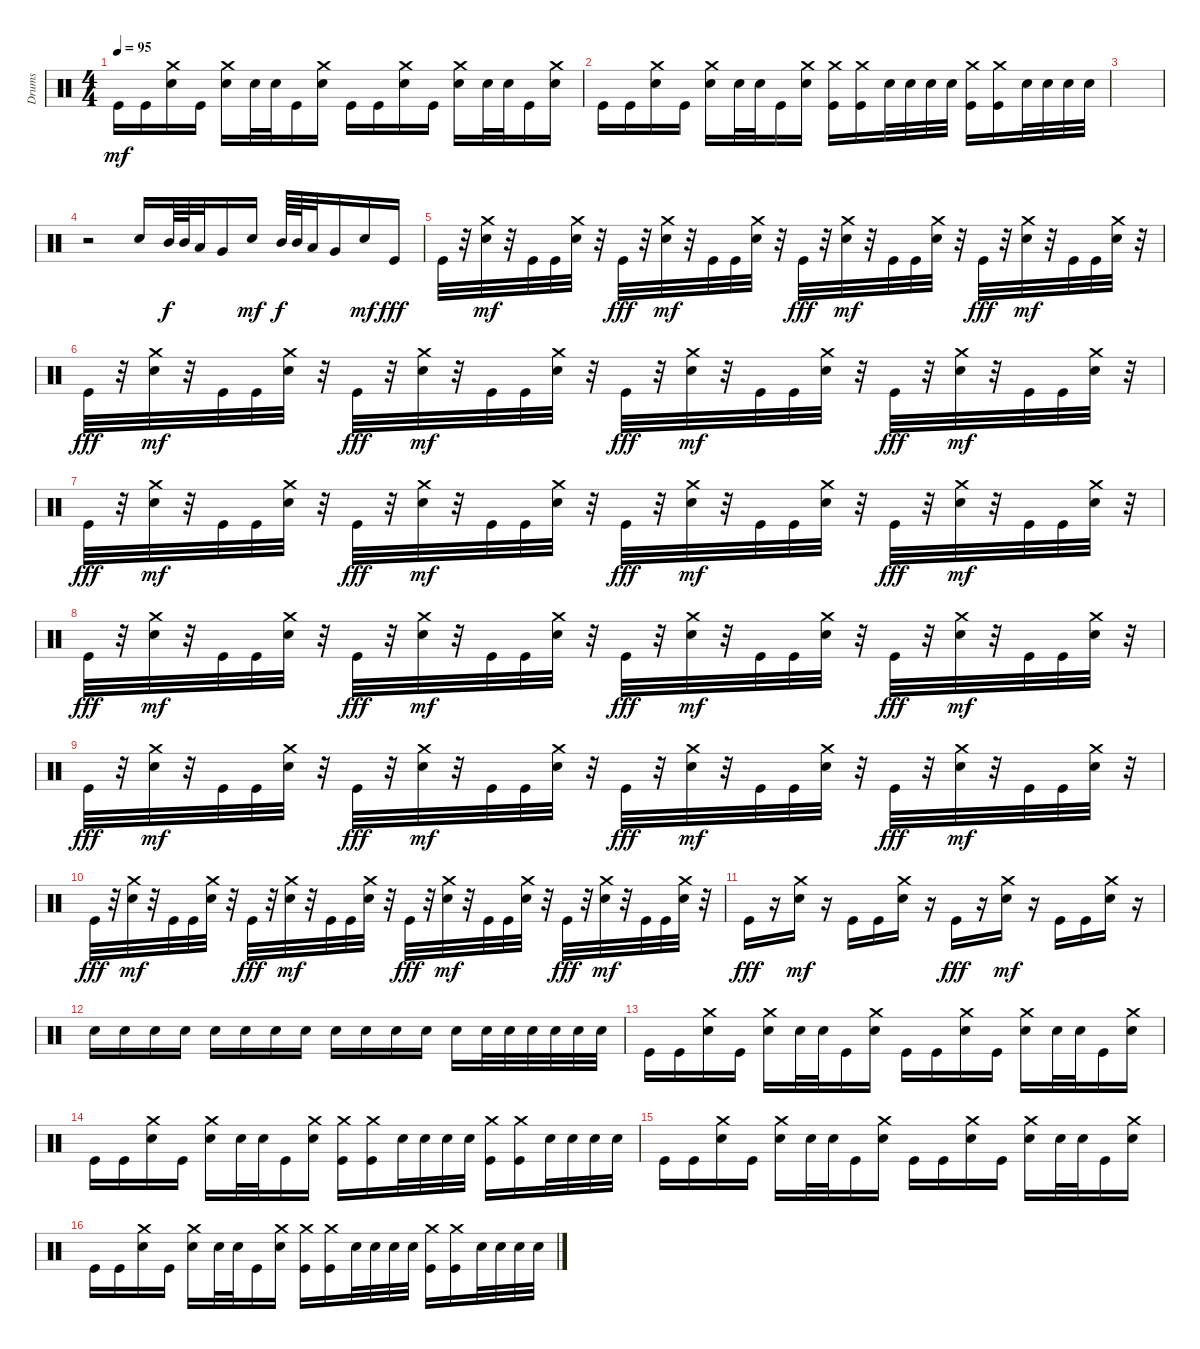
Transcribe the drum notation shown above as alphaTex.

\track ("Drums" "Drums") {instrument percussion}
\staff {score}
\articulation defaults
\ts (4 4)
\tempo 95
\clef neutral
\ks c "Kick (hit)".16{dy mf} "Kick (hit)".16
("Crash medium (hit)" "Snare (hit) 2").16 "Kick (hit)".16 ("Crash medium (hit)" "Snare (hit) 2").16 "Snare (hit) 2".32 "Snare (hit) 2".32 "Kick (hit)".16 ("Crash medium (hit)" "Snare (hit) 2").16 "Kick (hit)".16 "Kick (hit)".16 ("Crash medium (hit)" "Snare (hit) 2").16 "Kick (hit)".16 ("Crash medium (hit)" "Snare (hit) 2").16 "Snare (hit) 2".32 "Snare (hit) 2".32 "Kick (hit)".16 ("Crash medium (hit)" "Snare (hit) 2").16 |
"Kick (hit)".16 "Kick (hit)".16 ("Crash medium (hit)" "Snare (hit) 2").16 "Kick (hit)".16 ("Crash medium (hit)" "Snare (hit) 2").16 "Snare (hit) 2".32 "Snare (hit) 2".32 "Kick (hit)".16 ("Crash medium (hit)" "Snare (hit) 2").16 ("Crash medium (hit)" "Kick (hit)").16 ("Crash medium (hit)" "Kick (hit)").16 "Snare (hit) 2".32 "Snare (hit) 2".32 "Snare (hit) 2".32 "Snare (hit) 2".32 ("Crash medium (hit)" "Kick (hit)").16 ("Crash medium (hit)" "Kick (hit)").16 "Snare (hit) 2".32 "Snare (hit) 2".32 "Snare (hit) 2".32 "Snare (hit) 2".32 |
|
r.2 "Snare (hit) 2".16 "Mid Tom (hit)".64{dy f} "Mid Tom (hit)".64 "Low Tom (hit)".32 "Very Low Tom (hit)".16 "Snare (hit) 2".16{dy mf} "Mid Tom (hit)".64{dy f} "Mid Tom (hit)".64 "Low Tom (hit)".32 "Very Low Tom (hit)".16 "Snare (hit) 2".16{dy mf} "Kick (hit)".16{dy fff} |
"Kick (hit)".32 r.32 ("Crash medium (hit)" "Snare (hit) 2").32{dy mf} r.32 "Kick (hit)".32 "Kick (hit)".32 ("Crash medium (hit)" "Snare (hit) 2").32 r.32 "Kick (hit)".32{dy fff} r.32 ("Crash medium (hit)" "Snare (hit) 2").32{dy mf} r.32 "Kick (hit)".32 "Kick (hit)".32 ("Crash medium (hit)" "Snare (hit) 2").32 r.32 "Kick (hit)".32{dy fff} r.32 ("Crash medium (hit)" "Snare (hit) 2").32{dy mf} r.32 "Kick (hit)".32 "Kick (hit)".32 ("Crash medium (hit)" "Snare (hit) 2").32 r.32 "Kick (hit)".32{dy fff} r.32 ("Crash medium (hit)" "Snare (hit) 2").32{dy mf} r.32 "Kick (hit)".32 "Kick (hit)".32 ("Crash medium (hit)" "Snare (hit) 2").32 r.32 |
"Kick (hit)".32{dy fff} r.32 ("Crash medium (hit)" "Snare (hit) 2").32{dy mf} r.32 "Kick (hit)".32 "Kick (hit)".32 ("Crash medium (hit)" "Snare (hit) 2").32 r.32 "Kick (hit)".32{dy fff} r.32 ("Crash medium (hit)" "Snare (hit) 2").32{dy mf} r.32 "Kick (hit)".32 "Kick (hit)".32 ("Crash medium (hit)" "Snare (hit) 2").32 r.32 "Kick (hit)".32{dy fff} r.32 ("Crash medium (hit)" "Snare (hit) 2").32{dy mf} r.32 "Kick (hit)".32 "Kick (hit)".32 ("Crash medium (hit)" "Snare (hit) 2").32 r.32 "Kick (hit)".32{dy fff} r.32 ("Crash medium (hit)" "Snare (hit) 2").32{dy mf} r.32 "Kick (hit)".32 "Kick (hit)".32 ("Crash medium (hit)" "Snare (hit) 2").32 r.32 |
"Kick (hit)".32{dy fff} r.32 ("Crash medium (hit)" "Snare (hit) 2").32{dy mf} r.32 "Kick (hit)".32 "Kick (hit)".32 ("Crash medium (hit)" "Snare (hit) 2").32 r.32 "Kick (hit)".32{dy fff} r.32 ("Crash medium (hit)" "Snare (hit) 2").32{dy mf} r.32 "Kick (hit)".32 "Kick (hit)".32 ("Crash medium (hit)" "Snare (hit) 2").32 r.32 "Kick (hit)".32{dy fff} r.32 ("Crash medium (hit)" "Snare (hit) 2").32{dy mf} r.32 "Kick (hit)".32 "Kick (hit)".32 ("Crash medium (hit)" "Snare (hit) 2").32 r.32 "Kick (hit)".32{dy fff} r.32 ("Crash medium (hit)" "Snare (hit) 2").32{dy mf} r.32 "Kick (hit)".32 "Kick (hit)".32 ("Crash medium (hit)" "Snare (hit) 2").32 r.32 |
"Kick (hit)".32{dy fff} r.32 ("Crash medium (hit)" "Snare (hit) 2").32{dy mf} r.32 "Kick (hit)".32 "Kick (hit)".32 ("Crash medium (hit)" "Snare (hit) 2").32 r.32 "Kick (hit)".32{dy fff} r.32 ("Crash medium (hit)" "Snare (hit) 2").32{dy mf} r.32 "Kick (hit)".32 "Kick (hit)".32 ("Crash medium (hit)" "Snare (hit) 2").32 r.32 "Kick (hit)".32{dy fff} r.32 ("Crash medium (hit)" "Snare (hit) 2").32{dy mf} r.32 "Kick (hit)".32 "Kick (hit)".32 ("Crash medium (hit)" "Snare (hit) 2").32 r.32 "Kick (hit)".32{dy fff} r.32 ("Crash medium (hit)" "Snare (hit) 2").32{dy mf} r.32 "Kick (hit)".32 "Kick (hit)".32 ("Crash medium (hit)" "Snare (hit) 2").32 r.32 |
"Kick (hit)".32{dy fff} r.32 ("Crash medium (hit)" "Snare (hit) 2").32{dy mf} r.32 "Kick (hit)".32 "Kick (hit)".32 ("Crash medium (hit)" "Snare (hit) 2").32 r.32 "Kick (hit)".32{dy fff} r.32 ("Crash medium (hit)" "Snare (hit) 2").32{dy mf} r.32 "Kick (hit)".32 "Kick (hit)".32 ("Crash medium (hit)" "Snare (hit) 2").32 r.32 "Kick (hit)".32{dy fff} r.32 ("Crash medium (hit)" "Snare (hit) 2").32{dy mf} r.32 "Kick (hit)".32 "Kick (hit)".32 ("Crash medium (hit)" "Snare (hit) 2").32 r.32 "Kick (hit)".32{dy fff} r.32 ("Crash medium (hit)" "Snare (hit) 2").32{dy mf} r.32 "Kick (hit)".32 "Kick (hit)".32 ("Crash medium (hit)" "Snare (hit) 2").32 r.32 |
"Kick (hit)".32{dy fff} r.32 ("Crash medium (hit)" "Snare (hit) 2").32{dy mf} r.32 "Kick (hit)".32 "Kick (hit)".32 ("Crash medium (hit)" "Snare (hit) 2").32 r.32 "Kick (hit)".32{dy fff} r.32 ("Crash medium (hit)" "Snare (hit) 2").32{dy mf} r.32 "Kick (hit)".32 "Kick (hit)".32 ("Crash medium (hit)" "Snare (hit) 2").32 r.32 "Kick (hit)".32{dy fff} r.32 ("Crash medium (hit)" "Snare (hit) 2").32{dy mf} r.32 "Kick (hit)".32 "Kick (hit)".32 ("Crash medium (hit)" "Snare (hit) 2").32 r.32 "Kick (hit)".32{dy fff} r.32 ("Crash medium (hit)" "Snare (hit) 2").32{dy mf} r.32 "Kick (hit)".32 "Kick (hit)".32 ("Crash medium (hit)" "Snare (hit) 2").32 r.32 |
"Kick (hit)".16{dy fff} r.16 ("Crash medium (hit)" "Snare (hit) 2").16{dy mf} r.16 "Kick (hit)".16 "Kick (hit)".16 ("Crash medium (hit)" "Snare (hit) 2").16 r.16 "Kick (hit)".16{dy fff} r.16 ("Crash medium (hit)" "Snare (hit) 2").16{dy mf} r.16 "Kick (hit)".16 "Kick (hit)".16 ("Crash medium (hit)" "Snare (hit) 2").16 r.16 |
"Snare (hit) 2".16 "Snare (hit) 2".16 "Snare (hit) 2".16 "Snare (hit) 2".16 "Snare (hit) 2".16 "Snare (hit) 2".16 "Snare (hit) 2".16 "Snare (hit) 2".16 "Snare (hit) 2".16 "Snare (hit) 2".16 "Snare (hit) 2".16 "Snare (hit) 2".16 "Snare (hit) 2".16 "Snare (hit) 2".32 "Snare (hit) 2".32 "Snare (hit) 2".32 "Snare (hit) 2".32 "Snare (hit) 2".32 "Snare (hit) 2".32 |
"Kick (hit)".16 "Kick (hit)".16 ("Crash medium (hit)" "Snare (hit) 2").16 "Kick (hit)".16 ("Crash medium (hit)" "Snare (hit) 2").16 "Snare (hit) 2".32 "Snare (hit) 2".32 "Kick (hit)".16 ("Crash medium (hit)" "Snare (hit) 2").16 "Kick (hit)".16 "Kick (hit)".16 ("Crash medium (hit)" "Snare (hit) 2").16 "Kick (hit)".16 ("Crash medium (hit)" "Snare (hit) 2").16 "Snare (hit) 2".32 "Snare (hit) 2".32 "Kick (hit)".16 ("Crash medium (hit)" "Snare (hit) 2").16 |
"Kick (hit)".16 "Kick (hit)".16 ("Crash medium (hit)" "Snare (hit) 2").16 "Kick (hit)".16 ("Crash medium (hit)" "Snare (hit) 2").16 "Snare (hit) 2".32 "Snare (hit) 2".32 "Kick (hit)".16 ("Crash medium (hit)" "Snare (hit) 2").16 ("Crash medium (hit)" "Kick (hit)").16 ("Crash medium (hit)" "Kick (hit)").16 "Snare (hit) 2".32 "Snare (hit) 2".32 "Snare (hit) 2".32 "Snare (hit) 2".32 ("Crash medium (hit)" "Kick (hit)").16 ("Crash medium (hit)" "Kick (hit)").16 "Snare (hit) 2".32 "Snare (hit) 2".32 "Snare (hit) 2".32 "Snare (hit) 2".32 |
"Kick (hit)".16 "Kick (hit)".16 ("Crash medium (hit)" "Snare (hit) 2").16 "Kick (hit)".16 ("Crash medium (hit)" "Snare (hit) 2").16 "Snare (hit) 2".32 "Snare (hit) 2".32 "Kick (hit)".16 ("Crash medium (hit)" "Snare (hit) 2").16 "Kick (hit)".16 "Kick (hit)".16 ("Crash medium (hit)" "Snare (hit) 2").16 "Kick (hit)".16 ("Crash medium (hit)" "Snare (hit) 2").16 "Snare (hit) 2".32 "Snare (hit) 2".32 "Kick (hit)".16 ("Crash medium (hit)" "Snare (hit) 2").16 |
"Kick (hit)".16 "Kick (hit)".16 ("Crash medium (hit)" "Snare (hit) 2").16 "Kick (hit)".16 ("Crash medium (hit)" "Snare (hit) 2").16 "Snare (hit) 2".32 "Snare (hit) 2".32 "Kick (hit)".16 ("Crash medium (hit)" "Snare (hit) 2").16 ("Crash medium (hit)" "Kick (hit)").16 ("Crash medium (hit)" "Kick (hit)").16 "Snare (hit) 2".32 "Snare (hit) 2".32 "Snare (hit) 2".32 "Snare (hit) 2".32 ("Crash medium (hit)" "Kick (hit)").16 ("Crash medium (hit)" "Kick (hit)").16 "Snare (hit) 2".32 "Snare (hit) 2".32 "Snare (hit) 2".32 "Snare (hit) 2".32
